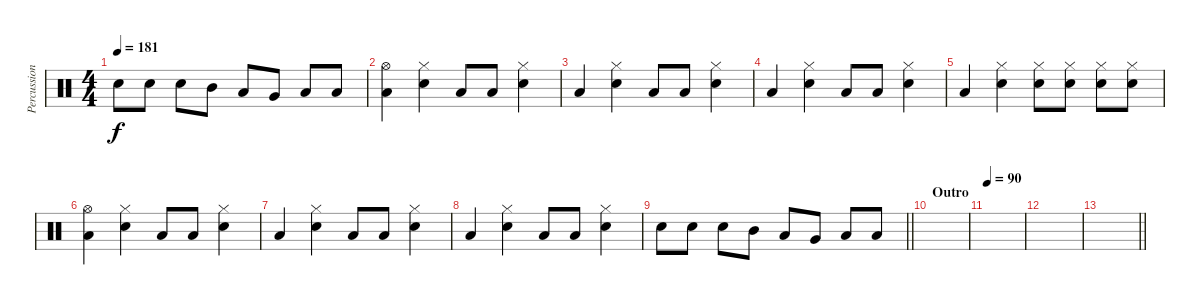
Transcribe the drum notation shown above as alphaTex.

\track ("Percussion" "Percussion") {instrument percussion}
\staff {score}
\articulation defaults
\ts (4 4)
\tempo 181
\clef neutral
\ks c "Snare (hit) 2".8{dy f} "Snare (hit) 2".8 "Snare (hit) 2".8 "Mid Tom (hit)".8 "Low Tom (hit)".8 "Very Low Tom (hit)".8 "Low Floor Tom (hit)".8 "Low Floor Tom (hit)".8
|
("Hi-Hat (open)" "Low Tom (hit)").4 ("Hi-Hat (closed)" "Snare (hit) 2").4 "Low Tom (hit)".8 "Low Tom (hit)".8 ("Hi-Hat (closed)" "Snare (hit) 2").4 |
"Low Tom (hit)".4 ("Hi-Hat (closed)" "Snare (hit) 2").4 "Low Tom (hit)".8 "Low Tom (hit)".8 ("Hi-Hat (closed)" "Snare (hit) 2").4 |
"Low Tom (hit)".4 ("Hi-Hat (closed)" "Snare (hit) 2").4 "Low Tom (hit)".8 "Low Tom (hit)".8 ("Hi-Hat (closed)" "Snare (hit) 2").4 |
"Low Tom (hit)".4 ("Hi-Hat (closed)" "Snare (hit) 2").4 ("Hi-Hat (closed)" "Snare (hit) 2").8 ("Hi-Hat (closed)" "Snare (hit) 2").8 ("Hi-Hat (closed)" "Snare (hit) 2").8 ("Hi-Hat (closed)" "Snare (hit) 2").8 |
("Hi-Hat (open)" "Low Tom (hit)").4 ("Hi-Hat (closed)" "Snare (hit) 2").4 "Low Tom (hit)".8 "Low Tom (hit)".8 ("Hi-Hat (closed)" "Snare (hit) 2").4 |
"Low Tom (hit)".4 ("Hi-Hat (closed)" "Snare (hit) 2").4 "Low Tom (hit)".8 "Low Tom (hit)".8 ("Hi-Hat (closed)" "Snare (hit) 2").4 |
"Low Tom (hit)".4 ("Hi-Hat (closed)" "Snare (hit) 2").4 "Low Tom (hit)".8 "Low Tom (hit)".8 ("Hi-Hat (closed)" "Snare (hit) 2").4 |
\barLineRight lightlight "Snare (hit) 2".8 "Snare (hit) 2".8 "Snare (hit) 2".8 "Mid Tom (hit)".8 "Low Tom (hit)".8 "Very Low Tom (hit)".8 "Low Floor Tom (hit)".8 "Low Floor Tom (hit)".8
|
\section ("" "Outro")
|
\tempo 90
|
|
\barLineRight lightlight
